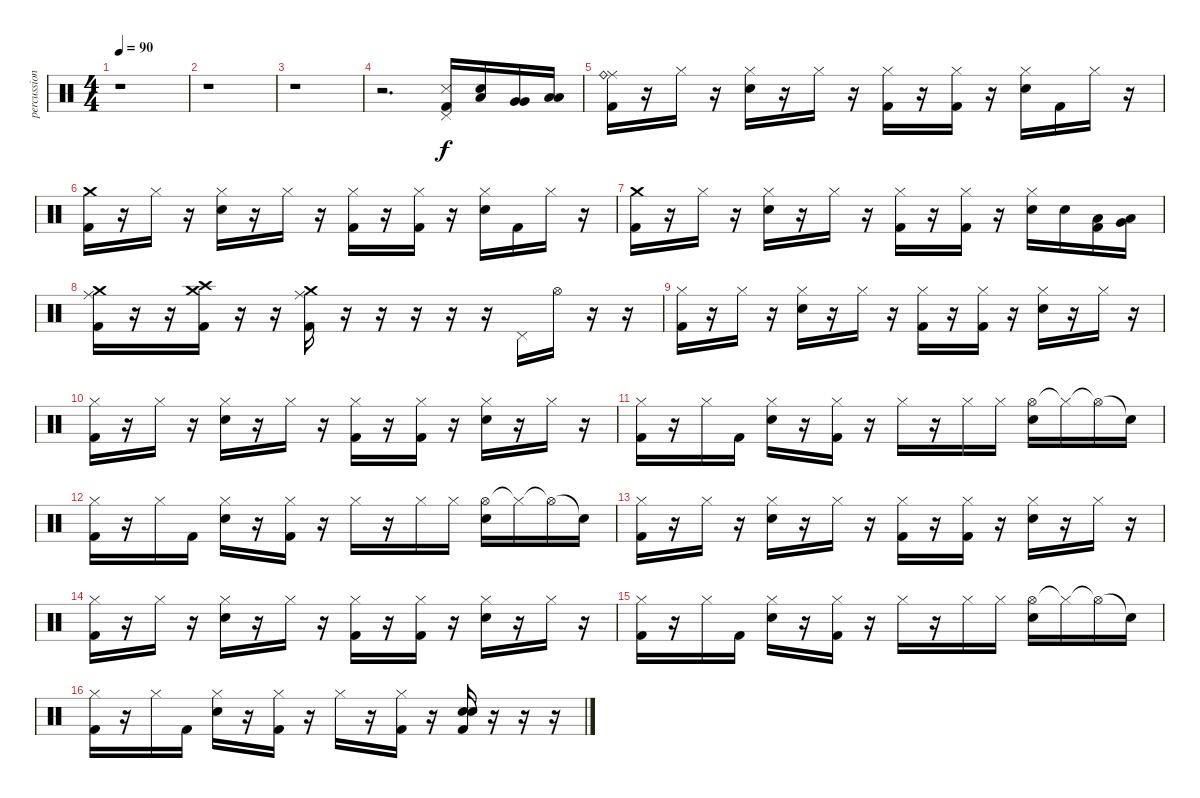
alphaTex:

\track ("percussion - longineu" "percussion") {instrument percussion}
\staff {score}
\articulation defaults
\ts (4 4)
\tempo 90
\clef neutral
\ks c
r.1{dy f} |
r.1 |
r.1 |
r.2{d} ("Pedal Hi-Hat (hit)" "Kick (hit) 2" "Metronome (hit)").16 ("Low Tom (hit)" "Snare (hit) 2").16 ("Very Low Tom (hit)" "Very Low Tom (hit)").16 ("Low Floor Tom (hit)" "Low Floor Tom (hit)").16 |
("Ride (middle)" "Ride (bell)" "Kick (hit) 2").16 r.16 "Hi-Hat (closed)".16 r.16 ("Hi-Hat (closed)" "Snare (hit) 2").16 r.16 "Hi-Hat (closed)".16 r.16 ("Hi-Hat (closed)" "Kick (hit) 2").16 r.16 ("Hi-Hat (closed)" "Kick (hit) 2").16 r.16 ("Hi-Hat (closed)" "Snare (hit) 2").16 "Kick (hit) 2".16 "Hi-Hat (closed)".16 r.16 |
("Crash medium (hit)" "Kick (hit) 2").16 r.16 "Hi-Hat (closed)".16 r.16 ("Hi-Hat (closed)" "Snare (hit) 2").16 r.16 "Hi-Hat (closed)".16 r.16 ("Hi-Hat (closed)" "Kick (hit) 2").16 r.16 ("Hi-Hat (closed)" "Kick (hit) 2").16 r.16 ("Hi-Hat (closed)" "Snare (hit) 2").16 "Kick (hit) 2".16 "Hi-Hat (closed)".16 r.16 |
("Crash medium (hit)" "Kick (hit) 2").16 r.16 "Hi-Hat (closed)".16 r.16 ("Hi-Hat (closed)" "Snare (hit) 2").16 r.16 "Hi-Hat (closed)".16 r.16 ("Hi-Hat (closed)" "Kick (hit) 2").16 r.16 ("Hi-Hat (closed)" "Kick (hit) 2").16 r.16 ("Hi-Hat (closed)" "Electric Snare (hit)").16 "Electric Snare (hit)".16 ("Low Tom (hit)" "Kick (hit) 2").16 ("Very Low Tom (hit)" "Low Tom (hit)").16 |
("Ride (middle)" "Crash medium (hit)" "Kick (hit) 2").16 r.16 r.16 ("Crash high (hit)" "Crash medium (hit)" "Kick (hit) 2").16 r.16 r.16 ("Ride (middle)" "Crash medium (hit)" "Kick (hit) 2").16 r.16 r.16 r.16 r.16 r.16 "Pedal Hi-Hat (hit)".16 "Hi-Hat (open)".16 r.16 r.16 |
("Hi-Hat (closed)" "Kick (hit) 2").16 r.16 "Hi-Hat (closed)".16 r.16 ("Hi-Hat (closed)" "Snare (hit) 2").16 r.16 "Hi-Hat (closed)".16 r.16 ("Hi-Hat (closed)" "Kick (hit) 2").16 r.16 ("Hi-Hat (closed)" "Kick (hit) 2").16 r.16 ("Hi-Hat (closed)" "Snare (hit) 2").16 r.16 "Hi-Hat (closed)".16 r.16 |
("Hi-Hat (closed)" "Kick (hit) 2").16 r.16 "Hi-Hat (closed)".16 r.16 ("Hi-Hat (closed)" "Snare (hit) 2").16 r.16 "Hi-Hat (closed)".16 r.16 ("Hi-Hat (closed)" "Kick (hit) 2").16 r.16 ("Hi-Hat (closed)" "Kick (hit) 2").16 r.16 ("Hi-Hat (closed)" "Snare (hit) 2").16 r.16 "Hi-Hat (closed)".16 r.16 |
("Hi-Hat (closed)" "Kick (hit) 2").16 r.16 "Hi-Hat (closed)".16 "Kick (hit) 2".16 ("Hi-Hat (closed)" "Snare (hit) 2").16 r.16 ("Hi-Hat (closed)" "Kick (hit) 2").16 r.16 "Hi-Hat (closed)".16 r.16 "Hi-Hat (closed)".16 "Hi-Hat (closed)".16 ("Hi-Hat (open)" "Snare (hit) 2").16 "Hi-Hat (closed)"{t}.16 "Hi-Hat (open)"{t}.16 "Snare (hit)"{t}.16 |
("Hi-Hat (closed)" "Kick (hit) 2").16 r.16 "Hi-Hat (closed)".16 "Kick (hit) 2".16 ("Hi-Hat (closed)" "Snare (hit) 2").16 r.16 ("Hi-Hat (closed)" "Kick (hit) 2").16 r.16 "Hi-Hat (closed)".16 r.16 "Hi-Hat (closed)".16 "Hi-Hat (closed)".16 ("Hi-Hat (open)" "Snare (hit) 2").16 "Hi-Hat (closed)"{t}.16 "Hi-Hat (open)"{t}.16 "Snare (hit)"{t}.16 |
("Hi-Hat (closed)" "Kick (hit) 2").16 r.16 "Hi-Hat (closed)".16 r.16 ("Hi-Hat (closed)" "Snare (hit) 2").16 r.16 "Hi-Hat (closed)".16 r.16 ("Hi-Hat (closed)" "Kick (hit) 2").16 r.16 ("Hi-Hat (closed)" "Kick (hit) 2").16 r.16 ("Hi-Hat (closed)" "Snare (hit) 2").16 r.16 "Hi-Hat (closed)".16 r.16 |
("Hi-Hat (closed)" "Kick (hit) 2").16 r.16 "Hi-Hat (closed)".16 r.16 ("Hi-Hat (closed)" "Snare (hit) 2").16 r.16 "Hi-Hat (closed)".16 r.16 ("Hi-Hat (closed)" "Kick (hit) 2").16 r.16 ("Hi-Hat (closed)" "Kick (hit) 2").16 r.16 ("Hi-Hat (closed)" "Snare (hit) 2").16 r.16 "Hi-Hat (closed)".16 r.16 |
("Hi-Hat (closed)" "Kick (hit) 2").16 r.16 "Hi-Hat (closed)".16 "Kick (hit) 2".16 ("Hi-Hat (closed)" "Snare (hit) 2").16 r.16 ("Hi-Hat (closed)" "Kick (hit) 2").16 r.16 "Hi-Hat (closed)".16 r.16 "Hi-Hat (closed)".16 "Hi-Hat (closed)".16 ("Hi-Hat (open)" "Snare (hit) 2").16 "Hi-Hat (closed)"{t}.16 "Hi-Hat (open)"{t}.16 "Snare (hit)"{t}.16 |
("Hi-Hat (closed)" "Kick (hit) 2").16 r.16 "Hi-Hat (closed)".16 "Kick (hit) 2".16 ("Hi-Hat (closed)" "Snare (hit) 2").16 r.16 ("Hi-Hat (closed)" "Kick (hit) 2").16 r.16 "Hi-Hat (closed)".16 r.16 ("Hi-Hat (closed)" "Kick (hit) 2").16 r.16 ("Snare (hit) 2" "Snare (hit) 2" "Kick (hit) 2").16 r.16 r.16 r.16
